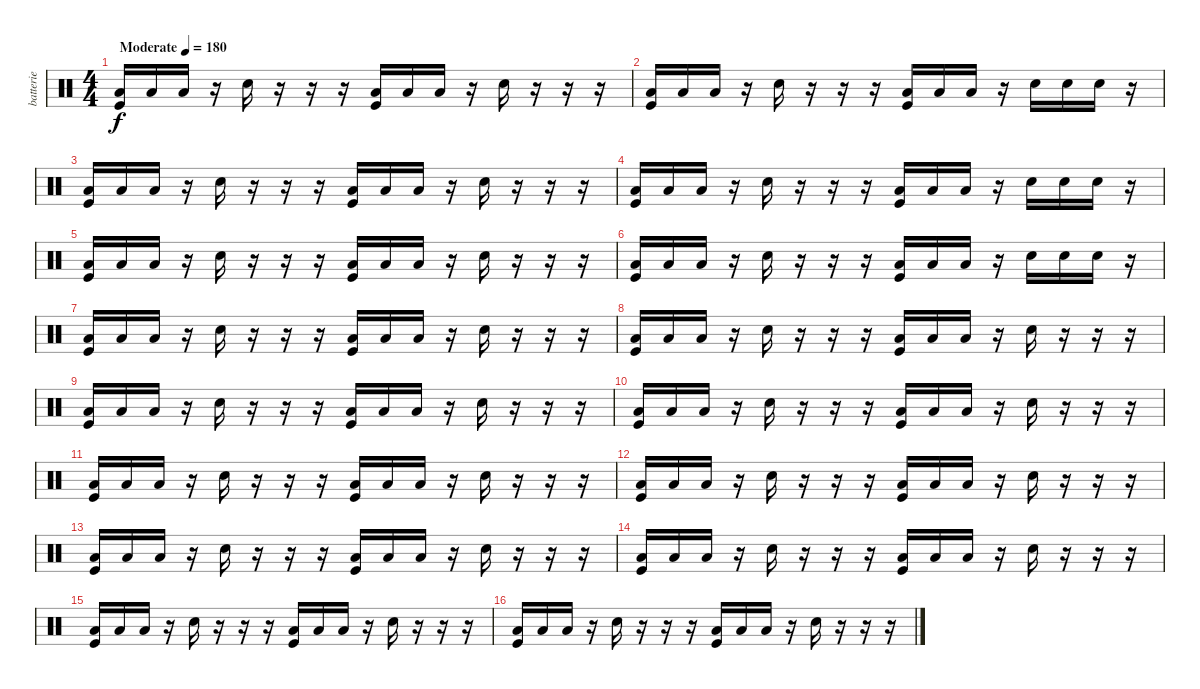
\track ("batterie" "batterie") {instrument percussion}
\staff {score}
\articulation defaults
\ts (4 4)
\tempo (180 "Moderate")
\clef neutral
\ks c
("Low Floor Tom (hit)" "Kick (hit)").16{dy f} "Low Floor Tom (hit)".16 "Low Floor Tom (hit)".16 r.16 "Snare (hit) 2".16 r.16 r.16 r.16 ("Low Floor Tom (hit)" "Kick (hit)").16 "Low Floor Tom (hit)".16 "Low Floor Tom (hit)".16 r.16 "Snare (hit) 2".16 r.16 r.16 r.16 |
("Low Floor Tom (hit)" "Kick (hit)").16 "Low Floor Tom (hit)".16 "Low Floor Tom (hit)".16 r.16 "Snare (hit) 2".16 r.16 r.16 r.16 ("Low Floor Tom (hit)" "Kick (hit)").16 "Low Floor Tom (hit)".16 "Low Floor Tom (hit)".16 r.16 "Snare (hit) 2".16 "Snare (hit) 2".16 "Snare (hit) 2".16 r.16 |
("Low Floor Tom (hit)" "Kick (hit)").16 "Low Floor Tom (hit)".16 "Low Floor Tom (hit)".16 r.16 "Snare (hit) 2".16 r.16 r.16 r.16 ("Low Floor Tom (hit)" "Kick (hit)").16 "Low Floor Tom (hit)".16 "Low Floor Tom (hit)".16 r.16 "Snare (hit) 2".16 r.16 r.16 r.16 |
("Low Floor Tom (hit)" "Kick (hit)").16 "Low Floor Tom (hit)".16 "Low Floor Tom (hit)".16 r.16 "Snare (hit) 2".16 r.16 r.16 r.16 ("Low Floor Tom (hit)" "Kick (hit)").16 "Low Floor Tom (hit)".16 "Low Floor Tom (hit)".16 r.16 "Snare (hit) 2".16 "Snare (hit) 2".16 "Snare (hit) 2".16 r.16 |
("Low Floor Tom (hit)" "Kick (hit)").16 "Low Floor Tom (hit)".16 "Low Floor Tom (hit)".16 r.16 "Snare (hit) 2".16 r.16 r.16 r.16 ("Low Floor Tom (hit)" "Kick (hit)").16 "Low Floor Tom (hit)".16 "Low Floor Tom (hit)".16 r.16 "Snare (hit) 2".16 r.16 r.16 r.16 |
("Low Floor Tom (hit)" "Kick (hit)").16 "Low Floor Tom (hit)".16 "Low Floor Tom (hit)".16 r.16 "Snare (hit) 2".16 r.16 r.16 r.16 ("Low Floor Tom (hit)" "Kick (hit)").16 "Low Floor Tom (hit)".16 "Low Floor Tom (hit)".16 r.16 "Snare (hit) 2".16 "Snare (hit) 2".16 "Snare (hit) 2".16 r.16 |
("Low Floor Tom (hit)" "Kick (hit)").16 "Low Floor Tom (hit)".16 "Low Floor Tom (hit)".16 r.16 "Snare (hit) 2".16 r.16 r.16 r.16 ("Low Floor Tom (hit)" "Kick (hit)").16 "Low Floor Tom (hit)".16 "Low Floor Tom (hit)".16 r.16 "Snare (hit) 2".16 r.16 r.16 r.16 |
("Low Floor Tom (hit)" "Kick (hit)").16 "Low Floor Tom (hit)".16 "Low Floor Tom (hit)".16 r.16 "Snare (hit) 2".16 r.16 r.16 r.16 ("Low Floor Tom (hit)" "Kick (hit)").16 "Low Floor Tom (hit)".16 "Low Floor Tom (hit)".16 r.16 "Snare (hit) 2".16 r.16 r.16 r.16 |
("Low Floor Tom (hit)" "Kick (hit)").16 "Low Floor Tom (hit)".16 "Low Floor Tom (hit)".16 r.16 "Snare (hit) 2".16 r.16 r.16 r.16 ("Low Floor Tom (hit)" "Kick (hit)").16 "Low Floor Tom (hit)".16 "Low Floor Tom (hit)".16 r.16 "Snare (hit) 2".16 r.16 r.16 r.16 |
("Low Floor Tom (hit)" "Kick (hit)").16 "Low Floor Tom (hit)".16 "Low Floor Tom (hit)".16 r.16 "Snare (hit) 2".16 r.16 r.16 r.16 ("Low Floor Tom (hit)" "Kick (hit)").16 "Low Floor Tom (hit)".16 "Low Floor Tom (hit)".16 r.16 "Snare (hit) 2".16 r.16 r.16 r.16 |
("Low Floor Tom (hit)" "Kick (hit)").16 "Low Floor Tom (hit)".16 "Low Floor Tom (hit)".16 r.16 "Snare (hit) 2".16 r.16 r.16 r.16 ("Low Floor Tom (hit)" "Kick (hit)").16 "Low Floor Tom (hit)".16 "Low Floor Tom (hit)".16 r.16 "Snare (hit) 2".16 r.16 r.16 r.16 |
("Low Floor Tom (hit)" "Kick (hit)").16 "Low Floor Tom (hit)".16 "Low Floor Tom (hit)".16 r.16 "Snare (hit) 2".16 r.16 r.16 r.16 ("Low Floor Tom (hit)" "Kick (hit)").16 "Low Floor Tom (hit)".16 "Low Floor Tom (hit)".16 r.16 "Snare (hit) 2".16 r.16 r.16 r.16 |
("Low Floor Tom (hit)" "Kick (hit)").16 "Low Floor Tom (hit)".16 "Low Floor Tom (hit)".16 r.16 "Snare (hit) 2".16 r.16 r.16 r.16 ("Low Floor Tom (hit)" "Kick (hit)").16 "Low Floor Tom (hit)".16 "Low Floor Tom (hit)".16 r.16 "Snare (hit) 2".16 r.16 r.16 r.16 |
("Low Floor Tom (hit)" "Kick (hit)").16 "Low Floor Tom (hit)".16 "Low Floor Tom (hit)".16 r.16 "Snare (hit) 2".16 r.16 r.16 r.16 ("Low Floor Tom (hit)" "Kick (hit)").16 "Low Floor Tom (hit)".16 "Low Floor Tom (hit)".16 r.16 "Snare (hit) 2".16 r.16 r.16 r.16 |
("Low Floor Tom (hit)" "Kick (hit)").16 "Low Floor Tom (hit)".16 "Low Floor Tom (hit)".16 r.16 "Snare (hit) 2".16 r.16 r.16 r.16 ("Low Floor Tom (hit)" "Kick (hit)").16 "Low Floor Tom (hit)".16 "Low Floor Tom (hit)".16 r.16 "Snare (hit) 2".16 r.16 r.16 r.16 |
("Low Floor Tom (hit)" "Kick (hit)").16 "Low Floor Tom (hit)".16 "Low Floor Tom (hit)".16 r.16 "Snare (hit) 2".16 r.16 r.16 r.16 ("Low Floor Tom (hit)" "Kick (hit)").16 "Low Floor Tom (hit)".16 "Low Floor Tom (hit)".16 r.16 "Snare (hit) 2".16 r.16 r.16 r.16
